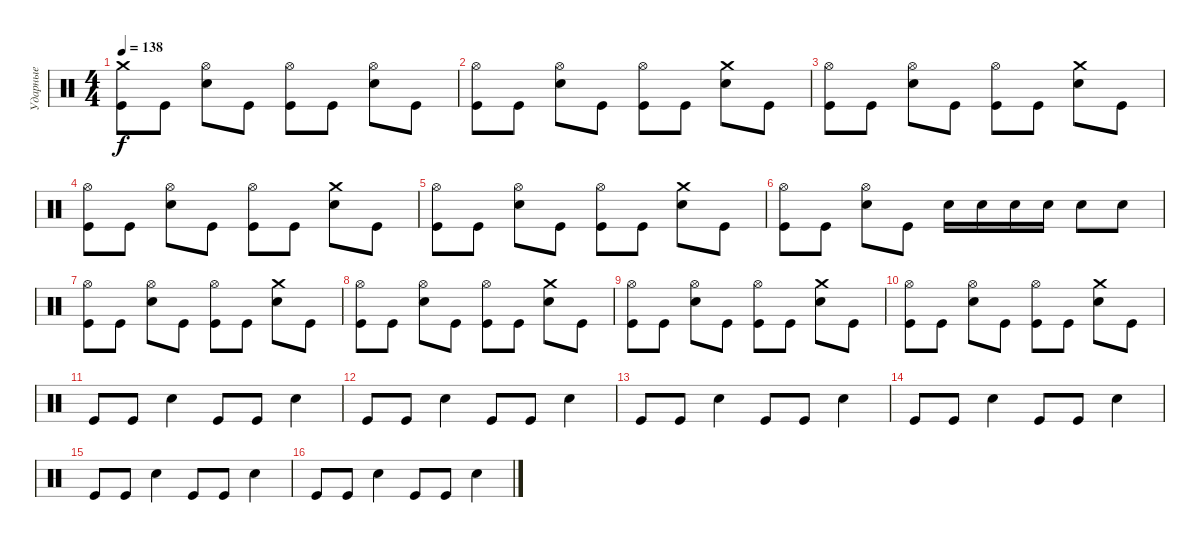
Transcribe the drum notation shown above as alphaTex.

\track ("Ударные" "Ударные") {instrument percussion}
\staff {score}
\articulation defaults
\ts (4 4)
\tempo 138
\clef neutral
\ks c
("Crash medium (hit)" "Kick (hit)").8{dy f} "Kick (hit)".8 ("Hi-Hat (open)" "Snare (hit) 2").8 "Kick (hit)".8 ("Hi-Hat (open)" "Kick (hit)").8 "Kick (hit)".8 ("Hi-Hat (open)" "Snare (hit) 2").8 "Kick (hit)".8 |
("Hi-Hat (open)" "Kick (hit)").8 "Kick (hit)".8 ("Hi-Hat (open)" "Snare (hit) 2").8 "Kick (hit)".8 ("Hi-Hat (open)" "Kick (hit)").8 "Kick (hit)".8 ("Crash medium (hit)" "Snare (hit) 2").8 "Kick (hit)".8 |
("Hi-Hat (open)" "Kick (hit)").8 "Kick (hit)".8 ("Hi-Hat (open)" "Snare (hit) 2").8 "Kick (hit)".8 ("Hi-Hat (open)" "Kick (hit)").8 "Kick (hit)".8 ("Crash medium (hit)" "Snare (hit) 2").8 "Kick (hit)".8 |
("Hi-Hat (open)" "Kick (hit)").8 "Kick (hit)".8 ("Hi-Hat (open)" "Snare (hit) 2").8 "Kick (hit)".8 ("Hi-Hat (open)" "Kick (hit)").8 "Kick (hit)".8 ("Crash medium (hit)" "Snare (hit) 2").8 "Kick (hit)".8 |
("Hi-Hat (open)" "Kick (hit)").8 "Kick (hit)".8 ("Hi-Hat (open)" "Snare (hit) 2").8 "Kick (hit)".8 ("Hi-Hat (open)" "Kick (hit)").8 "Kick (hit)".8 ("Crash medium (hit)" "Snare (hit) 2").8 "Kick (hit)".8 |
("Hi-Hat (open)" "Kick (hit)").8 "Kick (hit)".8 ("Hi-Hat (open)" "Snare (hit) 2").8 "Kick (hit)".8 "Snare (hit) 2".16 "Snare (hit) 2".16 "Snare (hit) 2".16 "Snare (hit) 2".16 "Snare (hit) 2".8 "Snare (hit) 2".8 |
("Hi-Hat (open)" "Kick (hit)").8 "Kick (hit)".8 ("Hi-Hat (open)" "Snare (hit) 2").8 "Kick (hit)".8 ("Hi-Hat (open)" "Kick (hit)").8 "Kick (hit)".8 ("Crash medium (hit)" "Snare (hit) 2").8 "Kick (hit)".8 |
("Hi-Hat (open)" "Kick (hit)").8 "Kick (hit)".8 ("Hi-Hat (open)" "Snare (hit) 2").8 "Kick (hit)".8 ("Hi-Hat (open)" "Kick (hit)").8 "Kick (hit)".8 ("Crash medium (hit)" "Snare (hit) 2").8 "Kick (hit)".8 |
("Hi-Hat (open)" "Kick (hit)").8 "Kick (hit)".8 ("Hi-Hat (open)" "Snare (hit) 2").8 "Kick (hit)".8 ("Hi-Hat (open)" "Kick (hit)").8 "Kick (hit)".8 ("Crash medium (hit)" "Snare (hit) 2").8 "Kick (hit)".8 |
("Hi-Hat (open)" "Kick (hit)").8 "Kick (hit)".8 ("Hi-Hat (open)" "Snare (hit) 2").8 "Kick (hit)".8 ("Hi-Hat (open)" "Kick (hit)").8 "Kick (hit)".8 ("Crash medium (hit)" "Snare (hit) 2").8 "Kick (hit)".8 |
"Kick (hit)".8 "Kick (hit)".8 "Snare (hit) 2".4 "Kick (hit)".8 "Kick (hit)".8 "Snare (hit) 2".4 |
"Kick (hit)".8 "Kick (hit)".8 "Snare (hit) 2".4 "Kick (hit)".8 "Kick (hit)".8 "Snare (hit) 2".4 |
"Kick (hit)".8 "Kick (hit)".8 "Snare (hit) 2".4 "Kick (hit)".8 "Kick (hit)".8 "Snare (hit) 2".4 |
"Kick (hit)".8 "Kick (hit)".8 "Snare (hit) 2".4 "Kick (hit)".8 "Kick (hit)".8 "Snare (hit) 2".4 |
"Kick (hit)".8 "Kick (hit)".8 "Snare (hit) 2".4 "Kick (hit)".8 "Kick (hit)".8 "Snare (hit) 2".4 |
"Kick (hit)".8 "Kick (hit)".8 "Snare (hit) 2".4 "Kick (hit)".8 "Kick (hit)".8 "Snare (hit) 2".4
